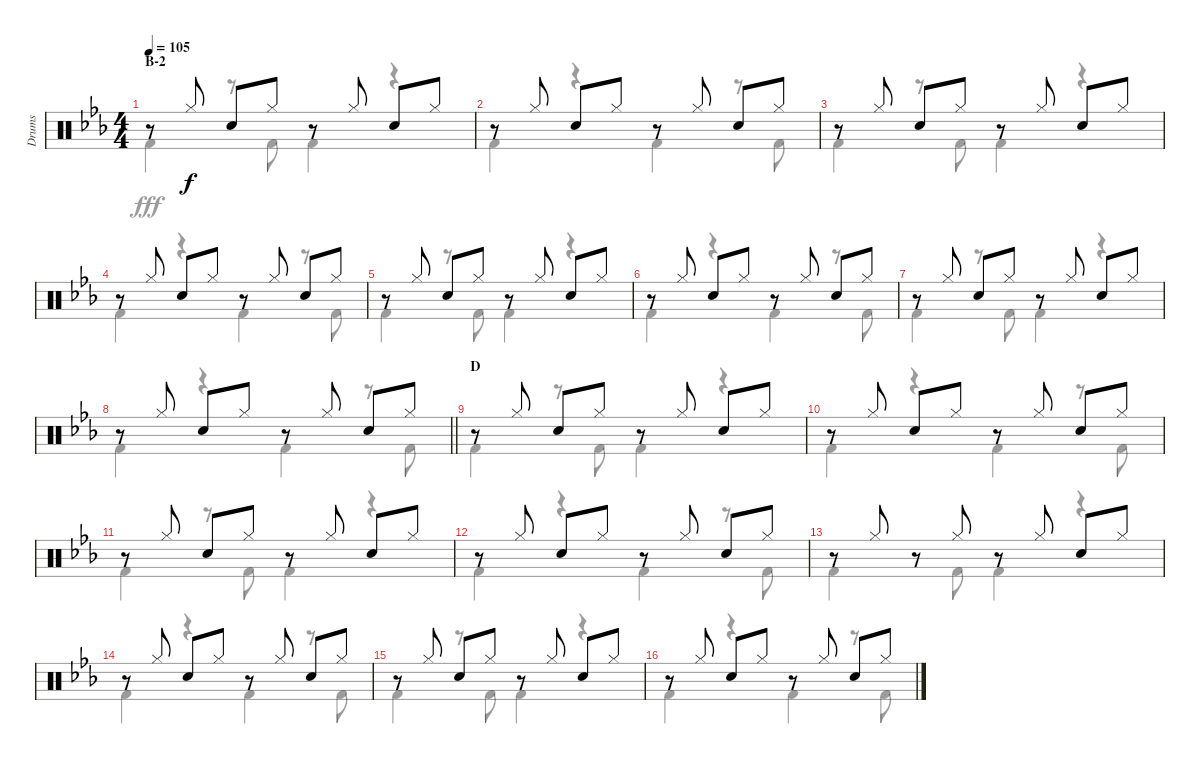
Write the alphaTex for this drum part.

\track ("Drums" "Drums") {instrument percussion}
\staff {score}
\articulation defaults
\voice
\ts (4 4)
\section ("" "B-2")
\tempo 105
\clef neutral
\ks eb
r.8{dy f} "Hi-Hat (closed)".8 "Snare (hit) 2".8 "Hi-Hat (closed)".8 r.8 "Hi-Hat (closed)".8 "Snare (hit) 2".8 "Hi-Hat (closed)".8 |
r.8 "Hi-Hat (closed)".8 "Snare (hit) 2".8 "Hi-Hat (closed)".8 r.8 "Hi-Hat (closed)".8 "Snare (hit) 2".8 "Hi-Hat (closed)".8 |
r.8 "Hi-Hat (closed)".8 "Snare (hit) 2".8 "Hi-Hat (closed)".8 r.8 "Hi-Hat (closed)".8 "Snare (hit) 2".8 "Hi-Hat (closed)".8 |
r.8 "Hi-Hat (closed)".8 "Snare (hit) 2".8 "Hi-Hat (closed)".8 r.8 "Hi-Hat (closed)".8 "Snare (hit) 2".8 "Hi-Hat (closed)".8 |
r.8 "Hi-Hat (closed)".8 "Snare (hit) 2".8 "Hi-Hat (closed)".8 r.8 "Hi-Hat (closed)".8 "Snare (hit) 2".8 "Hi-Hat (closed)".8 |
r.8 "Hi-Hat (closed)".8 "Snare (hit) 2".8 "Hi-Hat (closed)".8 r.8 "Hi-Hat (closed)".8 "Snare (hit) 2".8 "Hi-Hat (closed)".8 |
r.8 "Hi-Hat (closed)".8 "Snare (hit) 2".8 "Hi-Hat (closed)".8 r.8 "Hi-Hat (closed)".8 "Snare (hit) 2".8 "Hi-Hat (closed)".8 |
\barLineRight lightlight
r.8 "Hi-Hat (closed)".8 "Snare (hit) 2".8 "Hi-Hat (closed)".8 r.8 "Hi-Hat (closed)".8 "Snare (hit) 2".8 "Hi-Hat (closed)".8 |
\section ("" "D")
r.8 "Hi-Hat (closed)".8 "Snare (hit) 2".8 "Hi-Hat (closed)".8 r.8 "Hi-Hat (closed)".8 "Snare (hit) 2".8 "Hi-Hat (closed)".8 |
r.8 "Hi-Hat (closed)".8 "Snare (hit) 2".8 "Hi-Hat (closed)".8 r.8 "Hi-Hat (closed)".8 "Snare (hit) 2".8 "Hi-Hat (closed)".8 |
r.8 "Hi-Hat (closed)".8 "Snare (hit) 2".8 "Hi-Hat (closed)".8 r.8 "Hi-Hat (closed)".8 "Snare (hit) 2".8 "Hi-Hat (closed)".8 |
r.8 "Hi-Hat (closed)".8 "Snare (hit) 2".8 "Hi-Hat (closed)".8 r.8 "Hi-Hat (closed)".8 "Snare (hit) 2".8 "Hi-Hat (closed)".8 |
r.8 "Hi-Hat (closed)".8 r.8 "Hi-Hat (closed)".8 r.8 "Hi-Hat (closed)".8 "Snare (hit) 2".8 "Hi-Hat (closed)".8 |
r.8 "Hi-Hat (closed)".8 "Snare (hit) 2".8 "Hi-Hat (closed)".8 r.8 "Hi-Hat (closed)".8 "Snare (hit) 2".8 "Hi-Hat (closed)".8 |
r.8 "Hi-Hat (closed)".8 "Snare (hit) 2".8 "Hi-Hat (closed)".8 r.8 "Hi-Hat (closed)".8 "Snare (hit) 2".8 "Hi-Hat (closed)".8 |
r.8 "Hi-Hat (closed)".8 "Snare (hit) 2".8 "Hi-Hat (closed)".8 r.8 "Hi-Hat (closed)".8 "Snare (hit) 2".8 "Hi-Hat (closed)".8
\voice
\clef neutral
\ottava regular
\simile none
\ks eb "Kick (hit) 2".4{dy fff}
r.8 "Kick (hit) 2".8 "Kick (hit) 2".4 r.4 |
"Kick (hit) 2".4 r.4 "Kick (hit) 2".4 r.8 "Kick (hit) 2".8 |
"Kick (hit) 2".4 r.8 "Kick (hit) 2".8 "Kick (hit) 2".4 r.4 |
"Kick (hit) 2".4 r.4 "Kick (hit) 2".4 r.8 "Kick (hit) 2".8 |
"Kick (hit) 2".4 r.8 "Kick (hit) 2".8 "Kick (hit) 2".4 r.4 |
"Kick (hit) 2".4 r.4 "Kick (hit) 2".4 r.8 "Kick (hit) 2".8 |
"Kick (hit) 2".4 r.8 "Kick (hit) 2".8 "Kick (hit) 2".4 r.4 |
\barLineRight lightlight "Kick (hit) 2".4
r.4 "Kick (hit) 2".4 r.8 "Kick (hit) 2".8 |
"Kick (hit) 2".4 r.8 "Kick (hit) 2".8 "Kick (hit) 2".4 r.4 |
"Kick (hit) 2".4 r.4 "Kick (hit) 2".4 r.8 "Kick (hit) 2".8 |
"Kick (hit) 2".4 r.8 "Kick (hit) 2".8 "Kick (hit) 2".4 r.4 |
"Kick (hit) 2".4 r.4 "Kick (hit) 2".4 r.8 "Kick (hit) 2".8 |
"Kick (hit) 2".4 r.8 "Kick (hit) 2".8 "Kick (hit) 2".4 r.4 |
"Kick (hit) 2".4 r.4 "Kick (hit) 2".4 r.8 "Kick (hit) 2".8 |
"Kick (hit) 2".4 r.8 "Kick (hit) 2".8 "Kick (hit) 2".4 r.4 |
"Kick (hit) 2".4 r.4 "Kick (hit) 2".4 r.8 "Kick (hit) 2".8
